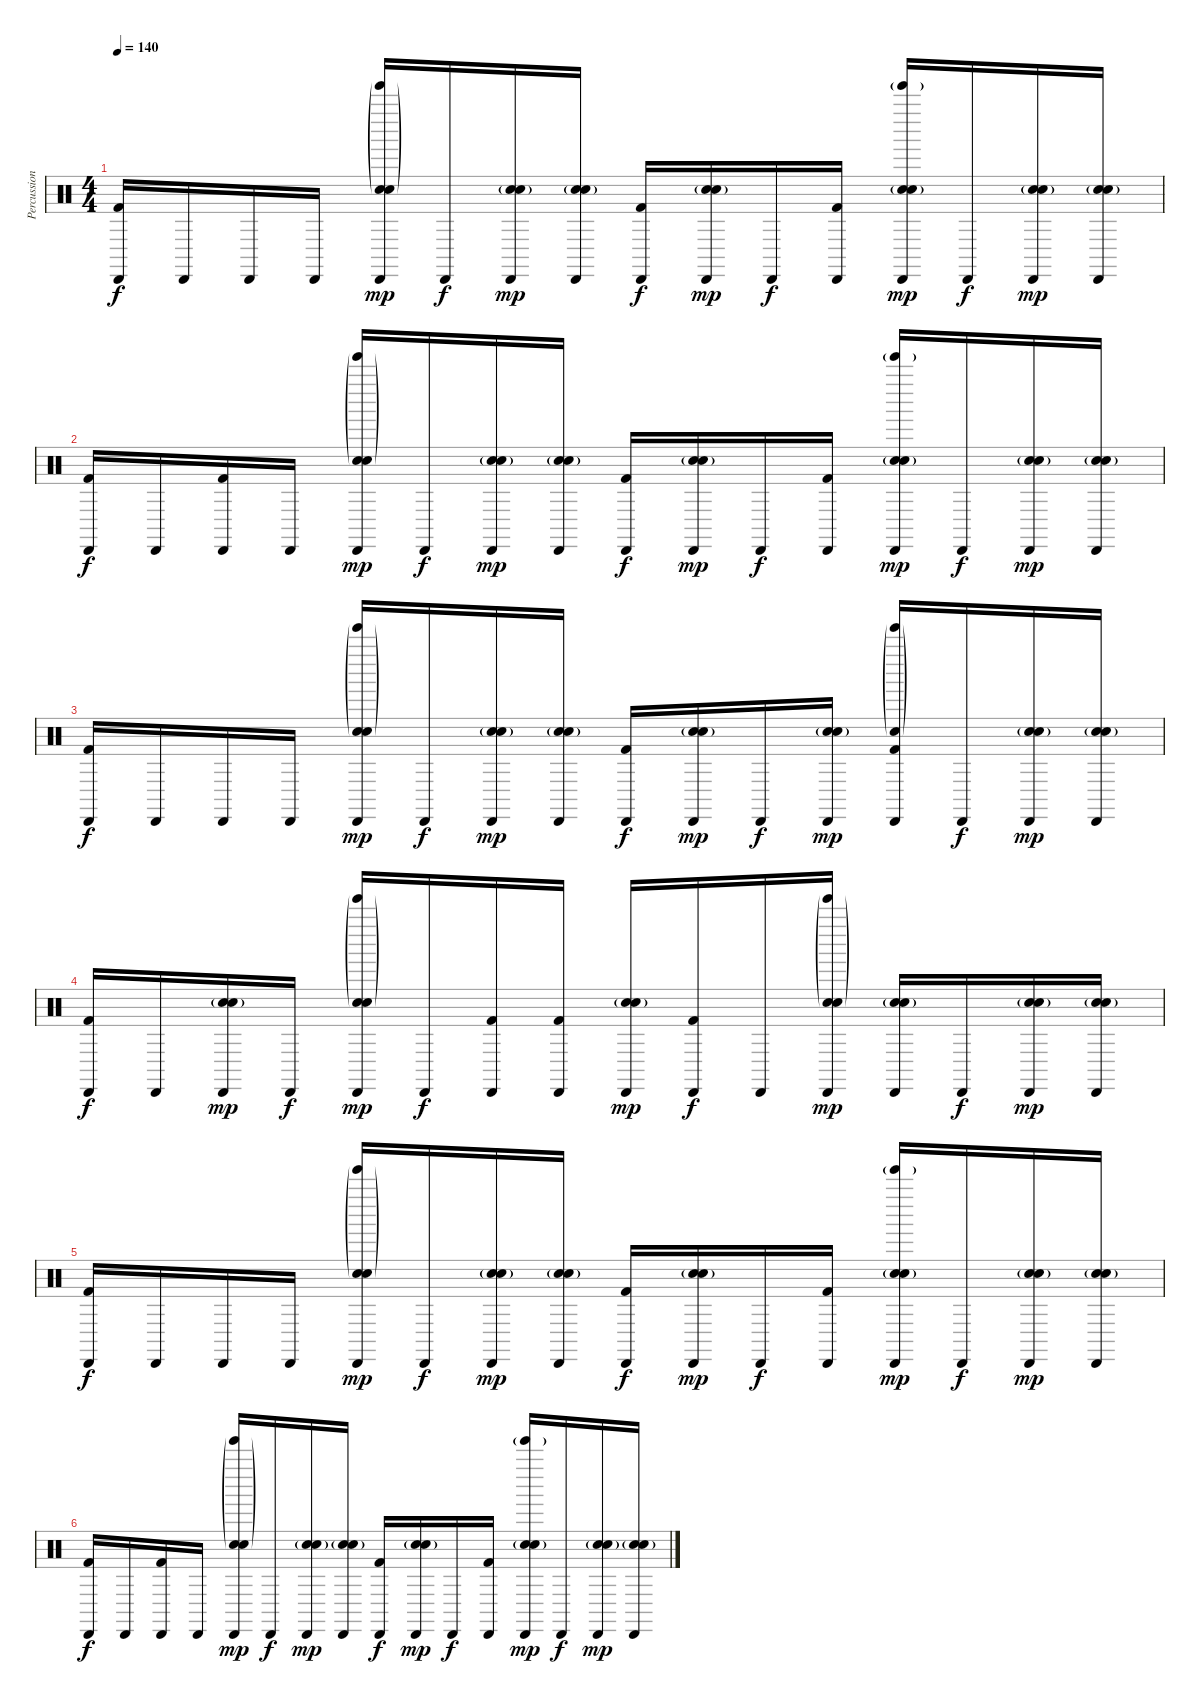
\track ("Percussion" "Percussion") {instrument percussion}
\staff {score}
\articulation defaults
\ts (4 4)
\tempo 140
\clef neutral
\ks c
("Cabasa (hit)" "Kick (hit) 2").16{dy f} "Cabasa (hit)".16 "Cabasa (hit)".16 "Cabasa (hit)".16 ("Tinkle Bell (hit)"{g} "Cabasa (hit)" "Snare (hit) 2"{g} "Electric Snare (hit)").16{dy mp} "Cabasa (hit)".16{dy f} ("Cabasa (hit)" "Snare (hit) 2"{g} "Electric Snare (hit)").16{dy mp} ("Cabasa (hit)" "Snare (hit) 2"{g} "Electric Snare (hit)").16 ("Cabasa (hit)" "Kick (hit) 2").16{dy f} ("Cabasa (hit)" "Electric Snare (hit)" "Snare (hit) 2"{g}).16{dy mp} "Cabasa (hit)".16{dy f} ("Cabasa (hit)" "Kick (hit) 2").16 ("Tinkle Bell (hit)"{g} "Cabasa (hit)" "Electric Snare (hit)" "Snare (hit) 2"{g}).16{dy mp} "Cabasa (hit)".16{dy f} ("Cabasa (hit)" "Electric Snare (hit)" "Snare (hit) 2"{g}).16{dy mp} ("Cabasa (hit)" "Electric Snare (hit)" "Snare (hit) 2"{g}).16 |
("Cabasa (hit)" "Kick (hit) 2").16{dy f} "Cabasa (hit)".16 ("Cabasa (hit)" "Kick (hit) 2").16 "Cabasa (hit)".16 ("Tinkle Bell (hit)"{g} "Cabasa (hit)" "Snare (hit) 2"{g} "Electric Snare (hit)").16{dy mp} "Cabasa (hit)".16{dy f} ("Cabasa (hit)" "Snare (hit) 2"{g} "Electric Snare (hit)").16{dy mp} ("Cabasa (hit)" "Snare (hit) 2"{g} "Electric Snare (hit)").16 ("Cabasa (hit)" "Kick (hit) 2").16{dy f} ("Cabasa (hit)" "Electric Snare (hit)" "Snare (hit) 2"{g}).16{dy mp} "Cabasa (hit)".16{dy f} ("Cabasa (hit)" "Kick (hit) 2").16 ("Tinkle Bell (hit)"{g} "Cabasa (hit)" "Electric Snare (hit)" "Snare (hit) 2"{g}).16{dy mp} "Cabasa (hit)".16{dy f} ("Cabasa (hit)" "Electric Snare (hit)" "Snare (hit) 2"{g}).16{dy mp} ("Cabasa (hit)" "Electric Snare (hit)" "Snare (hit) 2"{g}).16 |
("Cabasa (hit)" "Kick (hit) 2").16{dy f} "Cabasa (hit)".16 "Cabasa (hit)".16 "Cabasa (hit)".16 ("Tinkle Bell (hit)"{g} "Cabasa (hit)" "Snare (hit) 2"{g} "Electric Snare (hit)").16{dy mp} "Cabasa (hit)".16{dy f} ("Cabasa (hit)" "Snare (hit) 2"{g} "Electric Snare (hit)").16{dy mp} ("Cabasa (hit)" "Snare (hit) 2"{g} "Electric Snare (hit)").16 ("Cabasa (hit)" "Kick (hit) 2").16{dy f} ("Cabasa (hit)" "Electric Snare (hit)" "Snare (hit) 2"{g}).16{dy mp} "Cabasa (hit)".16{dy f} ("Cabasa (hit)" "Snare (hit) 2"{g} "Electric Snare (hit)").16{dy mp} ("Tinkle Bell (hit)"{g} "Cabasa (hit)" "Snare (hit) 2"{g} "Kick (hit) 2").16 "Cabasa (hit)".16{dy f} ("Cabasa (hit)" "Electric Snare (hit)" "Snare (hit) 2"{g}).16{dy mp} ("Cabasa (hit)" "Electric Snare (hit)" "Snare (hit) 2"{g}).16 |
("Cabasa (hit)" "Kick (hit) 2").16{dy f} "Cabasa (hit)".16 ("Cabasa (hit)" "Snare (hit) 2"{g} "Electric Snare (hit)").16{dy mp} "Cabasa (hit)".16{dy f} ("Tinkle Bell (hit)"{g} "Cabasa (hit)" "Snare (hit) 2"{g} "Electric Snare (hit)").16{dy mp} "Cabasa (hit)".16{dy f} ("Cabasa (hit)" "Kick (hit) 2").16 ("Cabasa (hit)" "Kick (hit) 2").16 ("Cabasa (hit)" "Snare (hit) 2"{g} "Electric Snare (hit)").16{dy mp} ("Cabasa (hit)" "Kick (hit) 2").16{dy f} "Cabasa (hit)".16 ("Tinkle Bell (hit)"{g} "Cabasa (hit)" "Snare (hit) 2"{g} "Electric Snare (hit)").16{dy mp} ("Cabasa (hit)" "Snare (hit) 2"{g} "Electric Snare (hit)").16 "Cabasa (hit)".16{dy f} ("Cabasa (hit)" "Electric Snare (hit)" "Snare (hit) 2"{g}).16{dy mp} ("Cabasa (hit)" "Electric Snare (hit)" "Snare (hit) 2"{g}).16 |
("Cabasa (hit)" "Kick (hit) 2").16{dy f} "Cabasa (hit)".16 "Cabasa (hit)".16 "Cabasa (hit)".16 ("Tinkle Bell (hit)"{g} "Cabasa (hit)" "Snare (hit) 2"{g} "Electric Snare (hit)").16{dy mp} "Cabasa (hit)".16{dy f} ("Cabasa (hit)" "Snare (hit) 2"{g} "Electric Snare (hit)").16{dy mp} ("Cabasa (hit)" "Snare (hit) 2"{g} "Electric Snare (hit)").16 ("Cabasa (hit)" "Kick (hit) 2").16{dy f} ("Cabasa (hit)" "Electric Snare (hit)" "Snare (hit) 2"{g}).16{dy mp} "Cabasa (hit)".16{dy f} ("Cabasa (hit)" "Kick (hit) 2").16 ("Tinkle Bell (hit)"{g} "Cabasa (hit)" "Electric Snare (hit)" "Snare (hit) 2"{g}).16{dy mp} "Cabasa (hit)".16{dy f} ("Cabasa (hit)" "Electric Snare (hit)" "Snare (hit) 2"{g}).16{dy mp} ("Cabasa (hit)" "Electric Snare (hit)" "Snare (hit) 2"{g}).16 |
("Cabasa (hit)" "Kick (hit) 2").16{dy f} "Cabasa (hit)".16 ("Cabasa (hit)" "Kick (hit) 2").16 "Cabasa (hit)".16 ("Tinkle Bell (hit)"{g} "Cabasa (hit)" "Snare (hit) 2"{g} "Electric Snare (hit)").16{dy mp} "Cabasa (hit)".16{dy f} ("Cabasa (hit)" "Snare (hit) 2"{g} "Electric Snare (hit)").16{dy mp} ("Cabasa (hit)" "Snare (hit) 2"{g} "Electric Snare (hit)").16 ("Cabasa (hit)" "Kick (hit) 2").16{dy f} ("Cabasa (hit)" "Electric Snare (hit)" "Snare (hit) 2"{g}).16{dy mp} "Cabasa (hit)".16{dy f} ("Cabasa (hit)" "Kick (hit) 2").16 ("Tinkle Bell (hit)"{g} "Cabasa (hit)" "Electric Snare (hit)" "Snare (hit) 2"{g}).16{dy mp} "Cabasa (hit)".16{dy f} ("Cabasa (hit)" "Electric Snare (hit)" "Snare (hit) 2"{g}).16{dy mp} ("Cabasa (hit)" "Electric Snare (hit)" "Snare (hit) 2"{g}).16
